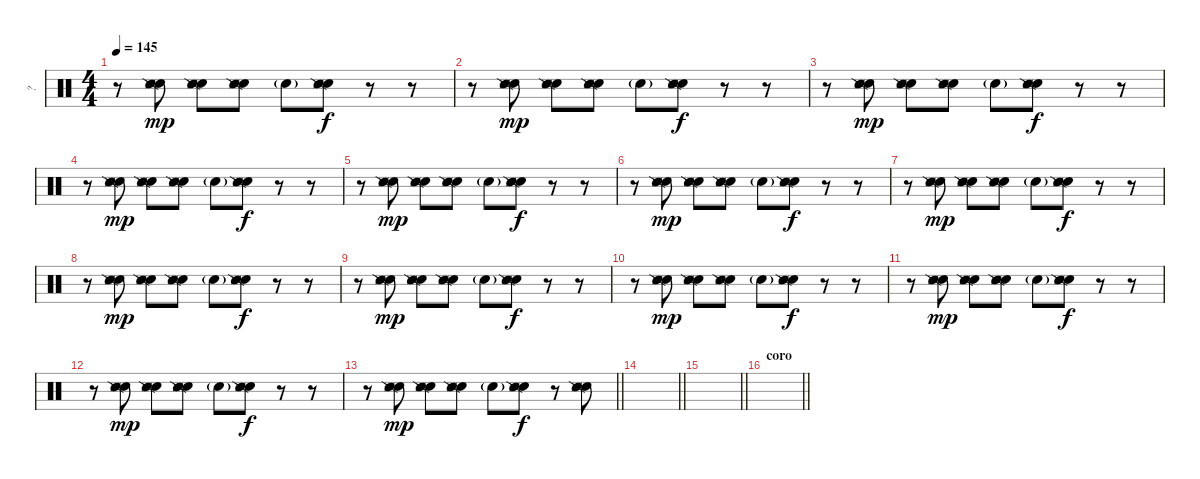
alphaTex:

\track ("?" "?") {instrument percussion}
\staff {score}
\articulation defaults
\ts (4 4)
\tempo 145
\clef neutral
\ks c
r.8{dy f} ("Snare (hit) 2" "Snare (side stick) 3" "Snare (side stick) 2").8{dy mp} ("Snare (hit) 2" "Snare (side stick) 3" "Snare (side stick) 2").8 ("Snare (hit) 2" "Snare (side stick) 3" "Snare (side stick) 2").8 "Snare (hit) 2"{g}.8 ("Snare (hit) 2" "Snare (side stick) 3" "Snare (side stick) 2").8{dy f} r.8 r.8 |
r.8 ("Snare (hit) 2" "Snare (side stick) 3" "Snare (side stick) 2").8{dy mp} ("Snare (hit) 2" "Snare (side stick) 3" "Snare (side stick) 2").8 ("Snare (hit) 2" "Snare (side stick) 3" "Snare (side stick) 2").8 "Snare (hit) 2"{g}.8 ("Snare (hit) 2" "Snare (side stick) 3" "Snare (side stick) 2").8{dy f} r.8 r.8 |
r.8 ("Snare (hit) 2" "Snare (side stick) 3" "Snare (side stick) 2").8{dy mp} ("Snare (hit) 2" "Snare (side stick) 3" "Snare (side stick) 2").8 ("Snare (hit) 2" "Snare (side stick) 3" "Snare (side stick) 2").8 "Snare (hit) 2"{g}.8 ("Snare (hit) 2" "Snare (side stick) 3" "Snare (side stick) 2").8{dy f} r.8 r.8 |
r.8 ("Snare (hit) 2" "Snare (side stick) 3" "Snare (side stick) 2").8{dy mp} ("Snare (hit) 2" "Snare (side stick) 3" "Snare (side stick) 2").8 ("Snare (hit) 2" "Snare (side stick) 3" "Snare (side stick) 2").8 "Snare (hit) 2"{g}.8 ("Snare (hit) 2" "Snare (side stick) 3" "Snare (side stick) 2").8{dy f} r.8 r.8 |
r.8 ("Snare (hit) 2" "Snare (side stick) 3" "Snare (side stick) 2").8{dy mp} ("Snare (hit) 2" "Snare (side stick) 3" "Snare (side stick) 2").8 ("Snare (hit) 2" "Snare (side stick) 3" "Snare (side stick) 2").8 "Snare (hit) 2"{g}.8 ("Snare (hit) 2" "Snare (side stick) 3" "Snare (side stick) 2").8{dy f} r.8 r.8 |
r.8 ("Snare (hit) 2" "Snare (side stick) 3" "Snare (side stick) 2").8{dy mp} ("Snare (hit) 2" "Snare (side stick) 3" "Snare (side stick) 2").8 ("Snare (hit) 2" "Snare (side stick) 3" "Snare (side stick) 2").8 "Snare (hit) 2"{g}.8 ("Snare (hit) 2" "Snare (side stick) 3" "Snare (side stick) 2").8{dy f} r.8 r.8 |
r.8 ("Snare (hit) 2" "Snare (side stick) 3" "Snare (side stick) 2").8{dy mp} ("Snare (hit) 2" "Snare (side stick) 3" "Snare (side stick) 2").8 ("Snare (hit) 2" "Snare (side stick) 3" "Snare (side stick) 2").8 "Snare (hit) 2"{g}.8 ("Snare (hit) 2" "Snare (side stick) 3" "Snare (side stick) 2").8{dy f} r.8 r.8 |
r.8 ("Snare (hit) 2" "Snare (side stick) 3" "Snare (side stick) 2").8{dy mp} ("Snare (hit) 2" "Snare (side stick) 3" "Snare (side stick) 2").8 ("Snare (hit) 2" "Snare (side stick) 3" "Snare (side stick) 2").8 "Snare (hit) 2"{g}.8 ("Snare (hit) 2" "Snare (side stick) 3" "Snare (side stick) 2").8{dy f} r.8 r.8 |
r.8 ("Snare (hit) 2" "Snare (side stick) 3" "Snare (side stick) 2").8{dy mp} ("Snare (hit) 2" "Snare (side stick) 3" "Snare (side stick) 2").8 ("Snare (hit) 2" "Snare (side stick) 3" "Snare (side stick) 2").8 "Snare (hit) 2"{g}.8 ("Snare (hit) 2" "Snare (side stick) 3" "Snare (side stick) 2").8{dy f} r.8 r.8 |
r.8 ("Snare (hit) 2" "Snare (side stick) 3" "Snare (side stick) 2").8{dy mp} ("Snare (hit) 2" "Snare (side stick) 3" "Snare (side stick) 2").8 ("Snare (hit) 2" "Snare (side stick) 3" "Snare (side stick) 2").8 "Snare (hit) 2"{g}.8 ("Snare (hit) 2" "Snare (side stick) 3" "Snare (side stick) 2").8{dy f} r.8 r.8 |
r.8 ("Snare (hit) 2" "Snare (side stick) 3" "Snare (side stick) 2").8{dy mp} ("Snare (hit) 2" "Snare (side stick) 3" "Snare (side stick) 2").8 ("Snare (hit) 2" "Snare (side stick) 3" "Snare (side stick) 2").8 "Snare (hit) 2"{g}.8 ("Snare (hit) 2" "Snare (side stick) 3" "Snare (side stick) 2").8{dy f} r.8 r.8 |
r.8 ("Snare (hit) 2" "Snare (side stick) 3" "Snare (side stick) 2").8{dy mp} ("Snare (hit) 2" "Snare (side stick) 3" "Snare (side stick) 2").8 ("Snare (hit) 2" "Snare (side stick) 3" "Snare (side stick) 2").8 "Snare (hit) 2"{g}.8 ("Snare (hit) 2" "Snare (side stick) 3" "Snare (side stick) 2").8{dy f} r.8 r.8 |
\barLineRight lightlight
r.8 ("Snare (hit) 2" "Snare (side stick) 3" "Snare (side stick) 2").8{dy mp} ("Snare (hit) 2" "Snare (side stick) 3" "Snare (side stick) 2").8 ("Snare (hit) 2" "Snare (side stick) 3" "Snare (side stick) 2").8 "Snare (hit) 2"{g}.8 ("Snare (hit) 2" "Snare (side stick) 3" "Snare (side stick) 2").8{dy f} r.8 ("Snare (hit) 2" "Snare (side stick) 3" "Snare (side stick) 2").8 |
\barLineRight lightlight
|
\barLineRight lightlight
|
\section ("" "coro")
\barLineRight lightlight
